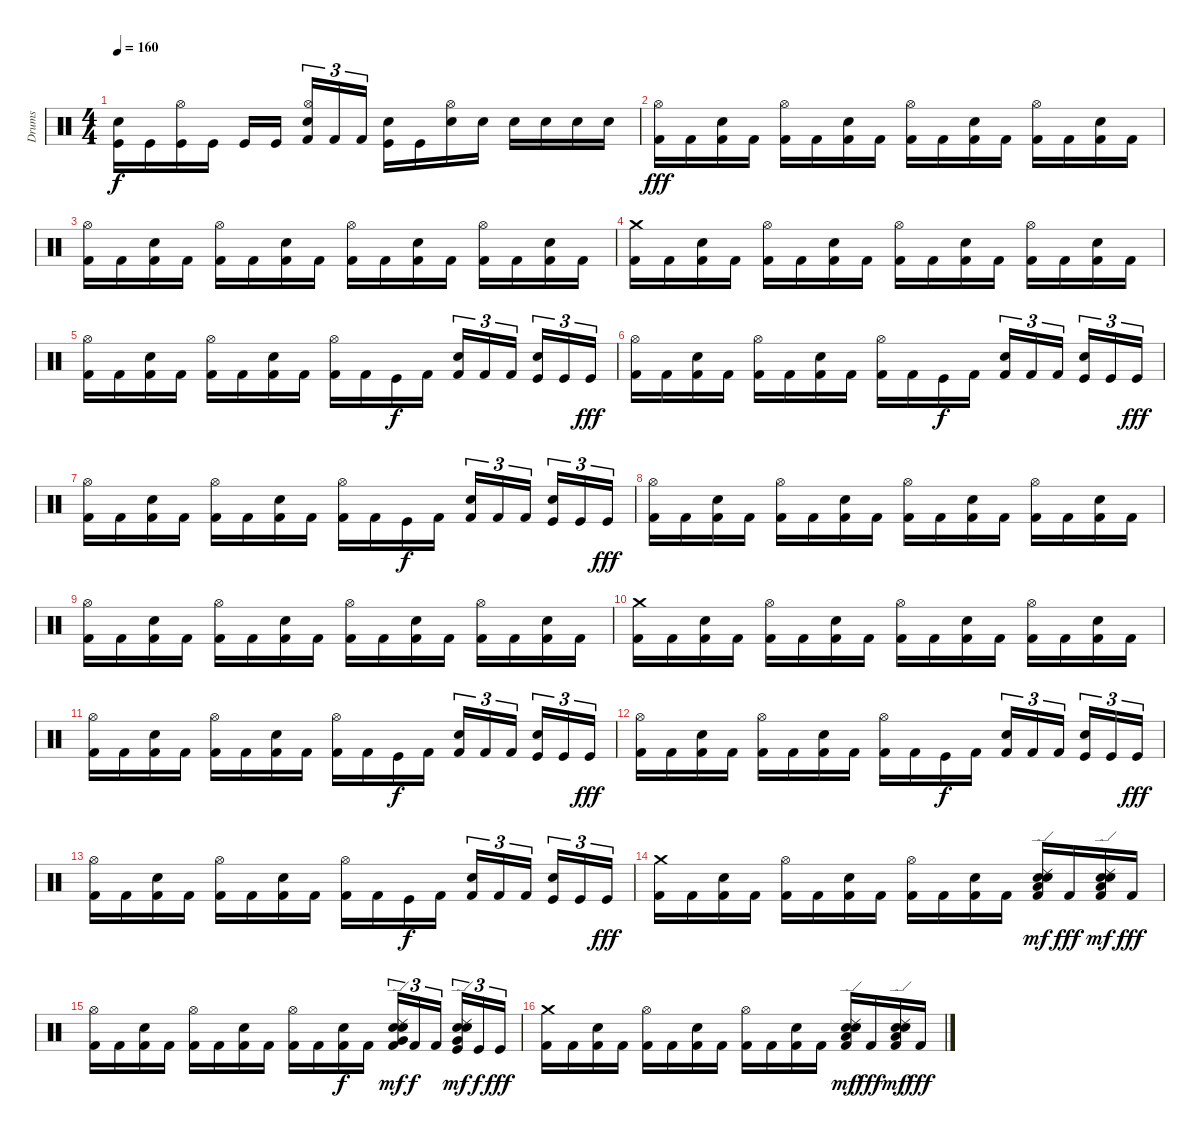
\track ("Drums" "Drums") {instrument percussion}
\staff {score}
\articulation defaults
\ts (4 4)
\tempo 160
\clef neutral
\ks c
("Snare (hit) 2" "Kick (hit)").16{dy f} "Kick (hit)".16 ("Hi-Hat (open)" "Kick (hit)").16 "Kick (hit)".16 "Kick (hit)".16 "Kick (hit)".16 ("Hi-Hat (open)" "Snare (hit) 2" "Kick (hit) 2").16{tu (3 2)} "Kick (hit) 2".16{tu (3 2)} "Kick (hit) 2".16{tu (3 2)} ("Snare (hit) 2" "Kick (hit)").16 "Kick (hit)".16 ("Hi-Hat (open)" "Snare (hit) 2").16 "Snare (hit) 2".16 "Snare (hit) 2".16 "Snare (hit) 2".16 "Snare (hit) 2".16 "Snare (hit) 2".16 |
("Hi-Hat (open)" "Kick (hit) 2").16{dy fff} "Kick (hit) 2".16 ("Snare (hit) 2" "Kick (hit) 2").16 "Kick (hit) 2".16 ("Hi-Hat (open)" "Kick (hit) 2").16 "Kick (hit) 2".16 ("Snare (hit) 2" "Kick (hit) 2").16 "Kick (hit) 2".16 ("Hi-Hat (open)" "Kick (hit) 2").16 "Kick (hit) 2".16 ("Snare (hit) 2" "Kick (hit) 2").16 "Kick (hit) 2".16 ("Hi-Hat (open)" "Kick (hit) 2").16 "Kick (hit) 2".16 ("Snare (hit) 2" "Kick (hit) 2").16 "Kick (hit) 2".16 |
("Hi-Hat (open)" "Kick (hit) 2").16 "Kick (hit) 2".16 ("Snare (hit) 2" "Kick (hit) 2").16 "Kick (hit) 2".16 ("Hi-Hat (open)" "Kick (hit) 2").16 "Kick (hit) 2".16 ("Snare (hit) 2" "Kick (hit) 2").16 "Kick (hit) 2".16 ("Hi-Hat (open)" "Kick (hit) 2").16 "Kick (hit) 2".16 ("Snare (hit) 2" "Kick (hit) 2").16 "Kick (hit) 2".16 ("Hi-Hat (open)" "Kick (hit) 2").16 "Kick (hit) 2".16 ("Snare (hit) 2" "Kick (hit) 2").16 "Kick (hit) 2".16 |
("Crash medium (hit)" "Kick (hit) 2").16 "Kick (hit) 2".16 ("Snare (hit) 2" "Kick (hit) 2").16 "Kick (hit) 2".16 ("Hi-Hat (open)" "Kick (hit) 2").16 "Kick (hit) 2".16 ("Snare (hit) 2" "Kick (hit) 2").16 "Kick (hit) 2".16 ("Hi-Hat (open)" "Kick (hit) 2").16 "Kick (hit) 2".16 ("Snare (hit) 2" "Kick (hit) 2").16 "Kick (hit) 2".16 ("Hi-Hat (open)" "Kick (hit) 2").16 "Kick (hit) 2".16 ("Snare (hit) 2" "Kick (hit) 2").16 "Kick (hit) 2".16 |
("Hi-Hat (open)" "Kick (hit) 2").16 "Kick (hit) 2".16 ("Snare (hit) 2" "Kick (hit) 2").16 "Kick (hit) 2".16 ("Hi-Hat (open)" "Kick (hit) 2").16 "Kick (hit) 2".16 ("Snare (hit) 2" "Kick (hit) 2").16 "Kick (hit) 2".16 ("Hi-Hat (open)" "Kick (hit) 2").16 "Kick (hit) 2".16 "Kick (hit)".16{dy f} "Kick (hit) 2".16 ("Snare (hit) 2" "Kick (hit) 2").16{tu (3 2)} "Kick (hit) 2".16{tu (3 2)} "Kick (hit) 2".16{tu (3 2)} ("Snare (hit) 2" "Kick (hit)").16{tu (3 2)} "Kick (hit)".16{tu (3 2)} "Kick (hit)".16{tu (3 2) dy fff} |
("Hi-Hat (open)" "Kick (hit) 2").16 "Kick (hit) 2".16 ("Snare (hit) 2" "Kick (hit) 2").16 "Kick (hit) 2".16 ("Hi-Hat (open)" "Kick (hit) 2").16 "Kick (hit) 2".16 ("Snare (hit) 2" "Kick (hit) 2").16 "Kick (hit) 2".16 ("Hi-Hat (open)" "Kick (hit) 2").16 "Kick (hit) 2".16 "Kick (hit)".16{dy f} "Kick (hit) 2".16 ("Snare (hit) 2" "Kick (hit) 2").16{tu (3 2)} "Kick (hit) 2".16{tu (3 2)} "Kick (hit) 2".16{tu (3 2)} ("Snare (hit) 2" "Kick (hit)").16{tu (3 2)} "Kick (hit)".16{tu (3 2)} "Kick (hit)".16{tu (3 2) dy fff} |
("Hi-Hat (open)" "Kick (hit) 2").16 "Kick (hit) 2".16 ("Snare (hit) 2" "Kick (hit) 2").16 "Kick (hit) 2".16 ("Hi-Hat (open)" "Kick (hit) 2").16 "Kick (hit) 2".16 ("Snare (hit) 2" "Kick (hit) 2").16 "Kick (hit) 2".16 ("Hi-Hat (open)" "Kick (hit) 2").16 "Kick (hit) 2".16 "Kick (hit)".16{dy f} "Kick (hit) 2".16 ("Snare (hit) 2" "Kick (hit) 2").16{tu (3 2)} "Kick (hit) 2".16{tu (3 2)} "Kick (hit) 2".16{tu (3 2)} ("Snare (hit) 2" "Kick (hit)").16{tu (3 2)} "Kick (hit)".16{tu (3 2)} "Kick (hit)".16{tu (3 2) dy fff} |
("Hi-Hat (open)" "Kick (hit) 2").16 "Kick (hit) 2".16 ("Snare (hit) 2" "Kick (hit) 2").16 "Kick (hit) 2".16 ("Hi-Hat (open)" "Kick (hit) 2").16 "Kick (hit) 2".16 ("Snare (hit) 2" "Kick (hit) 2").16 "Kick (hit) 2".16 ("Hi-Hat (open)" "Kick (hit) 2").16 "Kick (hit) 2".16 ("Snare (hit) 2" "Kick (hit) 2").16 "Kick (hit) 2".16 ("Hi-Hat (open)" "Kick (hit) 2").16 "Kick (hit) 2".16 ("Snare (hit) 2" "Kick (hit) 2").16 "Kick (hit) 2".16 |
("Hi-Hat (open)" "Kick (hit) 2").16 "Kick (hit) 2".16 ("Snare (hit) 2" "Kick (hit) 2").16 "Kick (hit) 2".16 ("Hi-Hat (open)" "Kick (hit) 2").16 "Kick (hit) 2".16 ("Snare (hit) 2" "Kick (hit) 2").16 "Kick (hit) 2".16 ("Hi-Hat (open)" "Kick (hit) 2").16 "Kick (hit) 2".16 ("Snare (hit) 2" "Kick (hit) 2").16 "Kick (hit) 2".16 ("Hi-Hat (open)" "Kick (hit) 2").16 "Kick (hit) 2".16 ("Snare (hit) 2" "Kick (hit) 2").16 "Kick (hit) 2".16 |
("Crash medium (hit)" "Kick (hit) 2").16 "Kick (hit) 2".16 ("Snare (hit) 2" "Kick (hit) 2").16 "Kick (hit) 2".16 ("Hi-Hat (open)" "Kick (hit) 2").16 "Kick (hit) 2".16 ("Snare (hit) 2" "Kick (hit) 2").16 "Kick (hit) 2".16 ("Hi-Hat (open)" "Kick (hit) 2").16 "Kick (hit) 2".16 ("Snare (hit) 2" "Kick (hit) 2").16 "Kick (hit) 2".16 ("Hi-Hat (open)" "Kick (hit) 2").16 "Kick (hit) 2".16 ("Snare (hit) 2" "Kick (hit) 2").16 "Kick (hit) 2".16 |
("Hi-Hat (open)" "Kick (hit) 2").16 "Kick (hit) 2".16 ("Snare (hit) 2" "Kick (hit) 2").16 "Kick (hit) 2".16 ("Hi-Hat (open)" "Kick (hit) 2").16 "Kick (hit) 2".16 ("Snare (hit) 2" "Kick (hit) 2").16 "Kick (hit) 2".16 ("Hi-Hat (open)" "Kick (hit) 2").16 "Kick (hit) 2".16 "Kick (hit)".16{dy f} "Kick (hit) 2".16 ("Snare (hit) 2" "Kick (hit) 2").16{tu (3 2)} "Kick (hit) 2".16{tu (3 2)} "Kick (hit) 2".16{tu (3 2)} ("Snare (hit) 2" "Kick (hit)").16{tu (3 2)} "Kick (hit)".16{tu (3 2)} "Kick (hit)".16{tu (3 2) dy fff} |
("Hi-Hat (open)" "Kick (hit) 2").16 "Kick (hit) 2".16 ("Snare (hit) 2" "Kick (hit) 2").16 "Kick (hit) 2".16 ("Hi-Hat (open)" "Kick (hit) 2").16 "Kick (hit) 2".16 ("Snare (hit) 2" "Kick (hit) 2").16 "Kick (hit) 2".16 ("Hi-Hat (open)" "Kick (hit) 2").16 "Kick (hit) 2".16 "Kick (hit)".16{dy f} "Kick (hit) 2".16 ("Snare (hit) 2" "Kick (hit) 2").16{tu (3 2)} "Kick (hit) 2".16{tu (3 2)} "Kick (hit) 2".16{tu (3 2)} ("Snare (hit) 2" "Kick (hit)").16{tu (3 2)} "Kick (hit)".16{tu (3 2)} "Kick (hit)".16{tu (3 2) dy fff} |
("Hi-Hat (open)" "Kick (hit) 2").16 "Kick (hit) 2".16 ("Snare (hit) 2" "Kick (hit) 2").16 "Kick (hit) 2".16 ("Hi-Hat (open)" "Kick (hit) 2").16 "Kick (hit) 2".16 ("Snare (hit) 2" "Kick (hit) 2").16 "Kick (hit) 2".16 ("Hi-Hat (open)" "Kick (hit) 2").16 "Kick (hit) 2".16 "Kick (hit)".16{dy f} "Kick (hit) 2".16 ("Snare (hit) 2" "Kick (hit) 2").16{tu (3 2)} "Kick (hit) 2".16{tu (3 2)} "Kick (hit) 2".16{tu (3 2)} ("Snare (hit) 2" "Kick (hit)").16{tu (3 2)} "Kick (hit)".16{tu (3 2)} "Kick (hit)".16{tu (3 2) dy fff} |
("Crash medium (hit)" "Kick (hit) 2").16 "Kick (hit) 2".16 ("Snare (hit) 2" "Kick (hit) 2").16 "Kick (hit) 2".16 ("Hi-Hat (open)" "Kick (hit) 2").16 "Kick (hit) 2".16 ("Snare (hit) 2" "Kick (hit) 2").16 "Kick (hit) 2".16 ("Hi-Hat (open)" "Kick (hit) 2").16 "Kick (hit) 2".16 ("Snare (hit) 2" "Kick (hit) 2").16 "Kick (hit) 2".16 ("Ride (edge) 2" "Snare (hit) 2" "Snare (hit) 2" "Low Floor Tom (hit)" "Kick (hit) 2").16{dy mf} "Kick (hit) 2".16{dy fff} ("Ride (edge) 2" "Snare (hit) 2" "Snare (hit) 2" "Low Floor Tom (hit)" "Kick (hit) 2").16{dy mf} "Kick (hit) 2".16{dy fff} |
("Hi-Hat (open)" "Kick (hit) 2").16 "Kick (hit) 2".16 ("Snare (hit) 2" "Kick (hit) 2").16 "Kick (hit) 2".16 ("Hi-Hat (open)" "Kick (hit) 2").16 "Kick (hit) 2".16 ("Snare (hit) 2" "Kick (hit) 2").16 "Kick (hit) 2".16 ("Hi-Hat (open)" "Kick (hit) 2").16 "Kick (hit) 2".16 ("Snare (hit) 2" "Kick (hit) 2").16{dy f} "Kick (hit) 2".16 ("Ride (edge) 2" "Electric Snare (hit)" "Electric Snare (hit)" "Very Low Tom (hit)" "Kick (hit) 2").16{tu (3 2) dy mf} "Kick (hit) 2".16{tu (3 2) dy f} "Kick (hit) 2".16{tu (3 2)} ("Ride (edge) 2" "Electric Snare (hit)" "Electric Snare (hit)" "Very Low Tom (hit)" "Kick (hit)").16{tu (3 2) dy mf} "Kick (hit)".16{tu (3 2) dy f} "Kick (hit)".16{tu (3 2) dy fff} |
("Crash medium (hit)" "Kick (hit) 2").16 "Kick (hit) 2".16 ("Snare (hit) 2" "Kick (hit) 2").16 "Kick (hit) 2".16 ("Hi-Hat (open)" "Kick (hit) 2").16 "Kick (hit) 2".16 ("Snare (hit) 2" "Kick (hit) 2").16 "Kick (hit) 2".16 ("Hi-Hat (open)" "Kick (hit) 2").16 "Kick (hit) 2".16 ("Snare (hit) 2" "Kick (hit) 2").16 "Kick (hit) 2".16 ("Ride (edge) 2" "Snare (hit) 2" "Snare (hit) 2" "Low Floor Tom (hit)" "Kick (hit) 2").16{dy mf} "Kick (hit) 2".16{dy fff} ("Ride (edge) 2" "Snare (hit) 2" "Snare (hit) 2" "Low Floor Tom (hit)" "Kick (hit) 2").16{dy mf} "Kick (hit) 2".16{dy fff}
